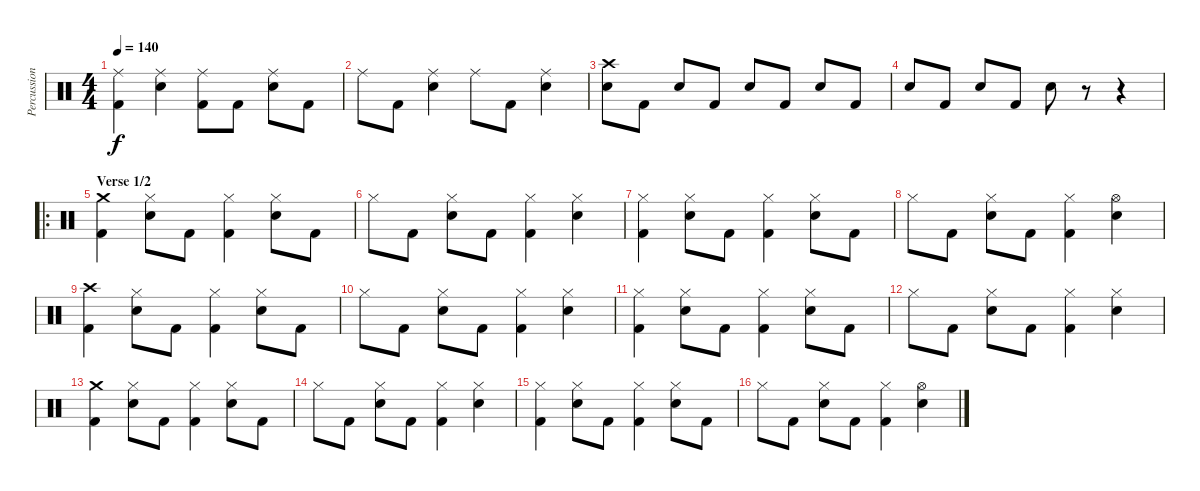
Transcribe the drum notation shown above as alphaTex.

\track ("Percussion" "Percussion") {instrument percussion}
\staff {score}
\articulation defaults
\ts (4 4)
\tempo 140
\clef neutral
\ks c
("Kick (hit) 2" "Ride (middle)").4{dy f} ("Snare (hit) 2" "Ride (middle)").4 ("Kick (hit) 2" "Ride (middle)").8 "Kick (hit) 2".8 ("Snare (hit) 2" "Ride (middle)").8 "Kick (hit) 2".8 |
"Ride (middle)".8 "Kick (hit) 2".8 ("Snare (hit) 2" "Ride (middle)").4 "Ride (middle)".8 "Kick (hit) 2".8 ("Snare (hit) 2" "Ride (middle)").4 |
("Snare (hit) 2" "Crash high (hit)").8 "Kick (hit) 2".8 "Snare (hit) 2".8 "Kick (hit) 2".8 "Snare (hit) 2".8 "Kick (hit) 2".8 "Snare (hit) 2".8 "Kick (hit) 2".8 |
"Snare (hit) 2".8 "Kick (hit) 2".8 "Snare (hit) 2".8 "Kick (hit) 2".8 "Snare (hit) 2".8 r.8 r.4 |
\ro
\section ("" "Verse 1/2")
("Kick (hit) 2" "Crash medium (hit)").4 ("Snare (hit) 2" "Hi-Hat (closed)").8 "Kick (hit) 2".8 ("Kick (hit) 2" "Hi-Hat (closed)").4 ("Snare (hit) 2" "Hi-Hat (closed)").8 "Kick (hit) 2".8 |
"Hi-Hat (closed)".8 "Kick (hit) 2".8 ("Snare (hit) 2" "Hi-Hat (closed)").8 "Kick (hit) 2".8 ("Kick (hit) 2" "Hi-Hat (closed)").4 ("Snare (hit) 2" "Hi-Hat (closed)").4 |
("Kick (hit) 2" "Hi-Hat (closed)").4 ("Snare (hit) 2" "Hi-Hat (closed)").8 "Kick (hit) 2".8 ("Kick (hit) 2" "Hi-Hat (closed)").4 ("Snare (hit) 2" "Hi-Hat (closed)").8 "Kick (hit) 2".8 |
"Hi-Hat (closed)".8 "Kick (hit) 2".8 ("Snare (hit) 2" "Hi-Hat (closed)").8 "Kick (hit) 2".8 ("Kick (hit) 2" "Hi-Hat (closed)").4 ("Snare (hit) 2" "Hi-Hat (open)").4 |
("Kick (hit) 2" "Crash high (hit)").4 ("Snare (hit) 2" "Hi-Hat (closed)").8 "Kick (hit) 2".8 ("Kick (hit) 2" "Hi-Hat (closed)").4 ("Snare (hit) 2" "Hi-Hat (closed)").8 "Kick (hit) 2".8 |
"Hi-Hat (closed)".8 "Kick (hit) 2".8 ("Snare (hit) 2" "Hi-Hat (closed)").8 "Kick (hit) 2".8 ("Kick (hit) 2" "Hi-Hat (closed)").4 ("Snare (hit) 2" "Hi-Hat (closed)").4 |
("Kick (hit) 2" "Hi-Hat (closed)").4 ("Snare (hit) 2" "Hi-Hat (closed)").8 "Kick (hit) 2".8 ("Kick (hit) 2" "Hi-Hat (closed)").4 ("Snare (hit) 2" "Hi-Hat (closed)").8 "Kick (hit) 2".8 |
"Hi-Hat (closed)".8 "Kick (hit) 2".8 ("Snare (hit) 2" "Hi-Hat (closed)").8 "Kick (hit) 2".8 ("Kick (hit) 2" "Hi-Hat (closed)").4 ("Snare (hit) 2" "Hi-Hat (closed)").4 |
("Kick (hit) 2" "Crash medium (hit)").4 ("Snare (hit) 2" "Hi-Hat (closed)").8 "Kick (hit) 2".8 ("Kick (hit) 2" "Hi-Hat (closed)").4 ("Snare (hit) 2" "Hi-Hat (closed)").8 "Kick (hit) 2".8 |
"Hi-Hat (closed)".8 "Kick (hit) 2".8 ("Snare (hit) 2" "Hi-Hat (closed)").8 "Kick (hit) 2".8 ("Kick (hit) 2" "Hi-Hat (closed)").4 ("Snare (hit) 2" "Hi-Hat (closed)").4 |
("Kick (hit) 2" "Hi-Hat (closed)").4 ("Snare (hit) 2" "Hi-Hat (closed)").8 "Kick (hit) 2".8 ("Kick (hit) 2" "Hi-Hat (closed)").4 ("Snare (hit) 2" "Hi-Hat (closed)").8 "Kick (hit) 2".8 |
"Hi-Hat (closed)".8 "Kick (hit) 2".8 ("Snare (hit) 2" "Hi-Hat (closed)").8 "Kick (hit) 2".8 ("Kick (hit) 2" "Hi-Hat (closed)").4 ("Snare (hit) 2" "Hi-Hat (open)").4
